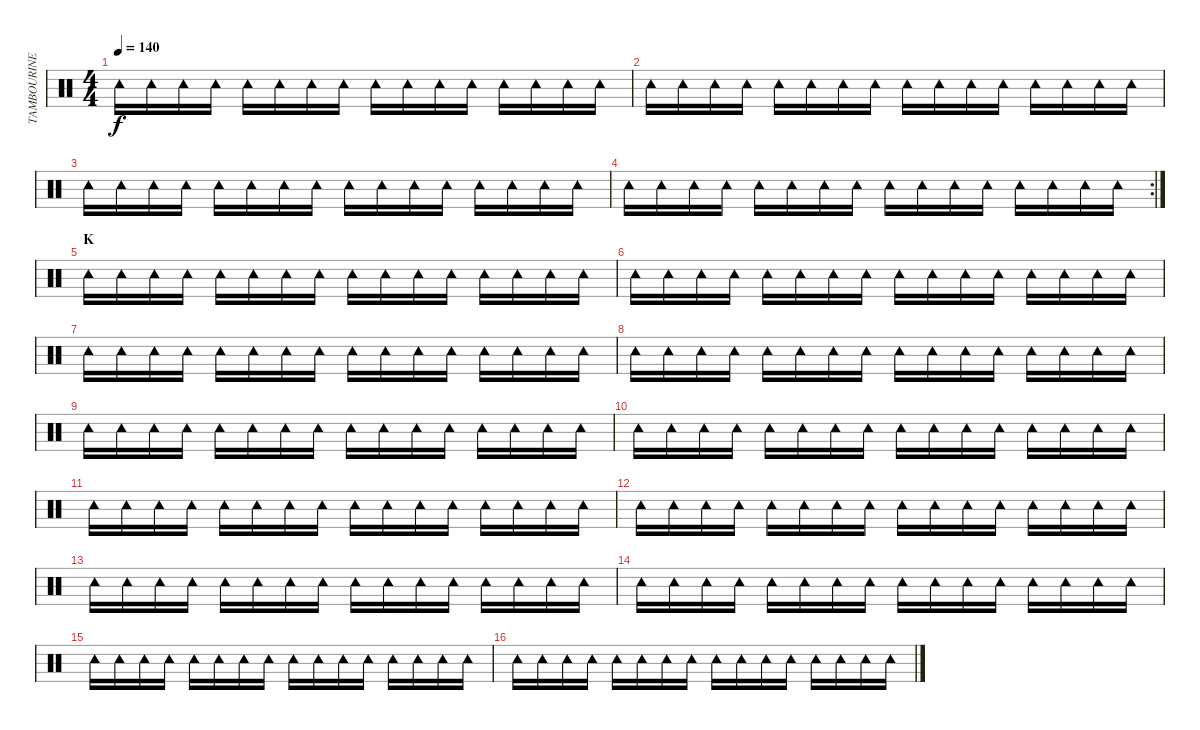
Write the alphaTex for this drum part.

\track ("TAMBOURINE" "TAMBOURINE") {instrument percussion}
\staff {score}
\articulation defaults
\ts (4 4)
\tempo 140
\clef neutral
\ks c "Tambourine (hit)".16{dy f} "Tambourine (hit)".16 "Tambourine (hit)".16 "Tambourine (hit)".16 "Tambourine (hit)".16 "Tambourine (hit)".16 "Tambourine (hit)".16 "Tambourine (hit)".16 "Tambourine (hit)".16 "Tambourine (hit)".16 "Tambourine (hit)".16 "Tambourine (hit)".16 "Tambourine (hit)".16 "Tambourine (hit)".16 "Tambourine (hit)".16 "Tambourine (hit)".16
|
"Tambourine (hit)".16 "Tambourine (hit)".16 "Tambourine (hit)".16 "Tambourine (hit)".16 "Tambourine (hit)".16 "Tambourine (hit)".16 "Tambourine (hit)".16 "Tambourine (hit)".16 "Tambourine (hit)".16 "Tambourine (hit)".16 "Tambourine (hit)".16 "Tambourine (hit)".16 "Tambourine (hit)".16 "Tambourine (hit)".16 "Tambourine (hit)".16 "Tambourine (hit)".16 |
"Tambourine (hit)".16 "Tambourine (hit)".16 "Tambourine (hit)".16 "Tambourine (hit)".16 "Tambourine (hit)".16 "Tambourine (hit)".16 "Tambourine (hit)".16 "Tambourine (hit)".16 "Tambourine (hit)".16 "Tambourine (hit)".16 "Tambourine (hit)".16 "Tambourine (hit)".16 "Tambourine (hit)".16 "Tambourine (hit)".16 "Tambourine (hit)".16 "Tambourine (hit)".16 |
\rc 2 "Tambourine (hit)".16 "Tambourine (hit)".16 "Tambourine (hit)".16 "Tambourine (hit)".16 "Tambourine (hit)".16 "Tambourine (hit)".16 "Tambourine (hit)".16 "Tambourine (hit)".16 "Tambourine (hit)".16 "Tambourine (hit)".16 "Tambourine (hit)".16 "Tambourine (hit)".16 "Tambourine (hit)".16 "Tambourine (hit)".16 "Tambourine (hit)".16 "Tambourine (hit)".16
|
\section ("" "K")
"Tambourine (hit)".16 "Tambourine (hit)".16 "Tambourine (hit)".16 "Tambourine (hit)".16 "Tambourine (hit)".16 "Tambourine (hit)".16 "Tambourine (hit)".16 "Tambourine (hit)".16 "Tambourine (hit)".16 "Tambourine (hit)".16 "Tambourine (hit)".16 "Tambourine (hit)".16 "Tambourine (hit)".16 "Tambourine (hit)".16 "Tambourine (hit)".16 "Tambourine (hit)".16 |
"Tambourine (hit)".16 "Tambourine (hit)".16 "Tambourine (hit)".16 "Tambourine (hit)".16 "Tambourine (hit)".16 "Tambourine (hit)".16 "Tambourine (hit)".16 "Tambourine (hit)".16 "Tambourine (hit)".16 "Tambourine (hit)".16 "Tambourine (hit)".16 "Tambourine (hit)".16 "Tambourine (hit)".16 "Tambourine (hit)".16 "Tambourine (hit)".16 "Tambourine (hit)".16 |
"Tambourine (hit)".16 "Tambourine (hit)".16 "Tambourine (hit)".16 "Tambourine (hit)".16 "Tambourine (hit)".16 "Tambourine (hit)".16 "Tambourine (hit)".16 "Tambourine (hit)".16 "Tambourine (hit)".16 "Tambourine (hit)".16 "Tambourine (hit)".16 "Tambourine (hit)".16 "Tambourine (hit)".16 "Tambourine (hit)".16 "Tambourine (hit)".16 "Tambourine (hit)".16 |
"Tambourine (hit)".16 "Tambourine (hit)".16 "Tambourine (hit)".16 "Tambourine (hit)".16 "Tambourine (hit)".16 "Tambourine (hit)".16 "Tambourine (hit)".16 "Tambourine (hit)".16 "Tambourine (hit)".16 "Tambourine (hit)".16 "Tambourine (hit)".16 "Tambourine (hit)".16 "Tambourine (hit)".16 "Tambourine (hit)".16 "Tambourine (hit)".16 "Tambourine (hit)".16 |
"Tambourine (hit)".16 "Tambourine (hit)".16 "Tambourine (hit)".16 "Tambourine (hit)".16 "Tambourine (hit)".16 "Tambourine (hit)".16 "Tambourine (hit)".16 "Tambourine (hit)".16 "Tambourine (hit)".16 "Tambourine (hit)".16 "Tambourine (hit)".16 "Tambourine (hit)".16 "Tambourine (hit)".16 "Tambourine (hit)".16 "Tambourine (hit)".16 "Tambourine (hit)".16 |
"Tambourine (hit)".16 "Tambourine (hit)".16 "Tambourine (hit)".16 "Tambourine (hit)".16 "Tambourine (hit)".16 "Tambourine (hit)".16 "Tambourine (hit)".16 "Tambourine (hit)".16 "Tambourine (hit)".16 "Tambourine (hit)".16 "Tambourine (hit)".16 "Tambourine (hit)".16 "Tambourine (hit)".16 "Tambourine (hit)".16 "Tambourine (hit)".16 "Tambourine (hit)".16 |
"Tambourine (hit)".16 "Tambourine (hit)".16 "Tambourine (hit)".16 "Tambourine (hit)".16 "Tambourine (hit)".16 "Tambourine (hit)".16 "Tambourine (hit)".16 "Tambourine (hit)".16 "Tambourine (hit)".16 "Tambourine (hit)".16 "Tambourine (hit)".16 "Tambourine (hit)".16 "Tambourine (hit)".16 "Tambourine (hit)".16 "Tambourine (hit)".16 "Tambourine (hit)".16 |
"Tambourine (hit)".16 "Tambourine (hit)".16 "Tambourine (hit)".16 "Tambourine (hit)".16 "Tambourine (hit)".16 "Tambourine (hit)".16 "Tambourine (hit)".16 "Tambourine (hit)".16 "Tambourine (hit)".16 "Tambourine (hit)".16 "Tambourine (hit)".16 "Tambourine (hit)".16 "Tambourine (hit)".16 "Tambourine (hit)".16 "Tambourine (hit)".16 "Tambourine (hit)".16 |
"Tambourine (hit)".16 "Tambourine (hit)".16 "Tambourine (hit)".16 "Tambourine (hit)".16 "Tambourine (hit)".16 "Tambourine (hit)".16 "Tambourine (hit)".16 "Tambourine (hit)".16 "Tambourine (hit)".16 "Tambourine (hit)".16 "Tambourine (hit)".16 "Tambourine (hit)".16 "Tambourine (hit)".16 "Tambourine (hit)".16 "Tambourine (hit)".16 "Tambourine (hit)".16 |
"Tambourine (hit)".16 "Tambourine (hit)".16 "Tambourine (hit)".16 "Tambourine (hit)".16 "Tambourine (hit)".16 "Tambourine (hit)".16 "Tambourine (hit)".16 "Tambourine (hit)".16 "Tambourine (hit)".16 "Tambourine (hit)".16 "Tambourine (hit)".16 "Tambourine (hit)".16 "Tambourine (hit)".16 "Tambourine (hit)".16 "Tambourine (hit)".16 "Tambourine (hit)".16 |
"Tambourine (hit)".16 "Tambourine (hit)".16 "Tambourine (hit)".16 "Tambourine (hit)".16 "Tambourine (hit)".16 "Tambourine (hit)".16 "Tambourine (hit)".16 "Tambourine (hit)".16 "Tambourine (hit)".16 "Tambourine (hit)".16 "Tambourine (hit)".16 "Tambourine (hit)".16 "Tambourine (hit)".16 "Tambourine (hit)".16 "Tambourine (hit)".16 "Tambourine (hit)".16 |
"Tambourine (hit)".16 "Tambourine (hit)".16 "Tambourine (hit)".16 "Tambourine (hit)".16 "Tambourine (hit)".16 "Tambourine (hit)".16 "Tambourine (hit)".16 "Tambourine (hit)".16 "Tambourine (hit)".16 "Tambourine (hit)".16 "Tambourine (hit)".16 "Tambourine (hit)".16 "Tambourine (hit)".16 "Tambourine (hit)".16 "Tambourine (hit)".16 "Tambourine (hit)".16
